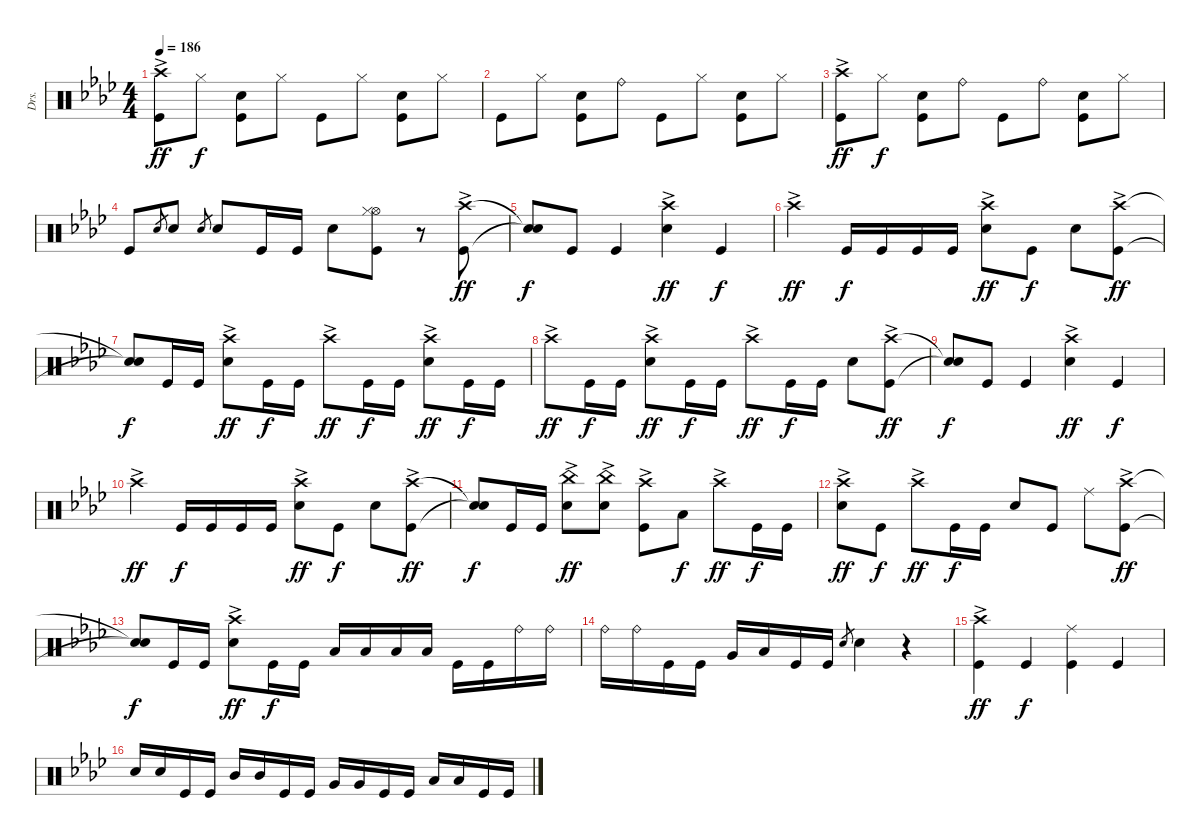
\track ("Drs." "Drs.") {instrument percussion}
\staff {score}
\articulation defaults
\ts (4 4)
\tempo 186
\clef neutral
\ks ab
("Crash high (hit)"{ac} "Kick (hit)").8{dy ff} "Hi-Hat (closed)".8{dy f} ("Snare (hit) 2" "Kick (hit)").8 "Hi-Hat (closed)".8 "Kick (hit)".8 "Hi-Hat (closed)".8 ("Snare (hit) 2" "Kick (hit)").8 "Hi-Hat (closed)".8 |
"Kick (hit)".8 "Hi-Hat (closed)".8 ("Snare (hit) 2" "Kick (hit)").8 "Ride (bell)".8 "Kick (hit)".8 "Hi-Hat (closed)".8 ("Snare (hit) 2" "Kick (hit)").8 "Hi-Hat (closed)".8 |
("Crash high (hit)"{ac} "Kick (hit)").8{dy ff} "Hi-Hat (closed)".8{dy f} ("Snare (hit) 2" "Kick (hit)").8 "Ride (bell)".8 "Kick (hit)".8 "Ride (bell)".8 ("Snare (hit) 2" "Kick (hit)").8 "Hi-Hat (closed)".8 |
"Kick (hit)".8 "Snare (hit) 2".8{gr} "Snare (hit) 2".8 "Snare (hit) 2".8{gr} "Snare (hit) 2".8 "Kick (hit)".16 "Kick (hit)".16 "Snare (hit) 2".8 ("Hi-Hat (open)" "Hi-Hat (closed)" "Kick (hit)").8 r.8 ("Crash high (hit)"{ac} "Kick (hit)").8{dy ff} |
("Snare (hit)"{t} "Snare (hit)"{t}).8{dy f} "Kick (hit)".8 "Kick (hit)".4 ("Crash high (hit)"{ac} "Snare (hit) 2").4{dy ff} "Kick (hit)".4{dy f} |
"Crash high (hit)"{ac}.4{dy ff} "Kick (hit)".16{dy f} "Kick (hit)".16 "Kick (hit)".16 "Kick (hit)".16 ("Crash high (hit)"{ac} "Snare (hit) 2").8{dy ff} "Kick (hit)".8{dy f} "Snare (hit) 2".8 ("Crash high (hit)"{ac} "Kick (hit)").8{dy ff} |
("Snare (hit)"{t} "Snare (hit)"{t}).8{dy f} "Kick (hit)".16 "Kick (hit)".16 ("Crash high (hit)"{ac} "Snare (hit) 2").8{dy ff} "Kick (hit)".16{dy f} "Kick (hit)".16 "Crash high (hit)"{ac}.8{dy ff} "Kick (hit)".16{dy f} "Kick (hit)".16 ("Crash high (hit)"{ac} "Snare (hit) 2").8{dy ff} "Kick (hit)".16{dy f} "Kick (hit)".16 |
"Crash high (hit)"{ac}.8{dy ff} "Kick (hit)".16{dy f} "Kick (hit)".16 ("Crash high (hit)"{ac} "Snare (hit) 2").8{dy ff} "Kick (hit)".16{dy f} "Kick (hit)".16 "Crash high (hit)"{ac}.8{dy ff} "Kick (hit)".16{dy f} "Kick (hit)".16 "Snare (hit) 2".8 ("Crash high (hit)"{ac} "Kick (hit)").8{dy ff} |
("Snare (hit)"{t} "Snare (hit)"{t}).8{dy f} "Kick (hit)".8 "Kick (hit)".4 ("Crash high (hit)"{ac} "Snare (hit) 2").4{dy ff} "Kick (hit)".4{dy f} |
"Crash high (hit)"{ac}.4{dy ff} "Kick (hit)".16{dy f} "Kick (hit)".16 "Kick (hit)".16 "Kick (hit)".16 ("Crash high (hit)"{ac} "Snare (hit) 2").8{dy ff} "Kick (hit)".8{dy f} "Snare (hit) 2".8 ("Crash high (hit)"{ac} "Kick (hit)").8{dy ff} |
("Snare (hit)"{t} "Snare (hit)"{t}).8{dy f} "Kick (hit)".16 "Kick (hit)".16 ("China (hit)"{ac} "Snare (hit) 2").8{dy ff} ("China (hit)"{ac} "Snare (hit) 2").8 ("Crash high (hit)"{ac} "Kick (hit)").8 "Low Tom (hit)".8{dy f} "Crash high (hit)"{ac}.8{dy ff} "Kick (hit)".16{dy f} "Kick (hit)".16 |
("Crash high (hit)"{ac} "Snare (hit) 2").8{dy ff} "Kick (hit)".8{dy f} "Crash high (hit)"{ac}.8{dy ff} "Kick (hit)".16{dy f} "Kick (hit)".16 "Snare (hit) 2".8 "Kick (hit)".8 "Ride (middle)".8 ("Crash high (hit)"{ac} "Kick (hit)").8{dy ff} |
("Snare (hit)"{t} "Snare (hit)"{t}).8{dy f} "Kick (hit)".16 "Kick (hit)".16 ("Crash high (hit)"{ac} "Snare (hit) 2").8{dy ff} "Kick (hit)".16{dy f} "Kick (hit)".16 "Low Tom (hit)".16 "Low Tom (hit)".16 "Low Tom (hit)".16 "Low Tom (hit)".16 "Kick (hit)".16 "Kick (hit)".16 "Ride (bell)".16 "Ride (bell)".16 |
"Ride (bell)".16 "Ride (bell)".16 "Kick (hit)".16 "Kick (hit)".16 "Very Low Tom (hit)".16 "Low Tom (hit)".16 "Kick (hit)".16 "Kick (hit)".16 "Snare (hit) 2".8{gr} "Snare (hit) 2".4 r.4 |
("Crash high (hit)"{ac} "Kick (hit)").4{dy ff} "Kick (hit)".4{dy f} ("Ride (middle)" "Kick (hit)").4 "Kick (hit)".4 |
"Snare (hit) 2".16 "Snare (hit) 2".16 "Kick (hit)".16 "Kick (hit)".16 "Mid Tom (hit)".16 "Mid Tom (hit)".16 "Kick (hit)".16 "Kick (hit)".16 "Very Low Tom (hit)".16 "Very Low Tom (hit)".16 "Kick (hit)".16 "Kick (hit)".16 "Low Tom (hit)".16 "Low Tom (hit)".16 "Kick (hit)".16 "Kick (hit)".16
